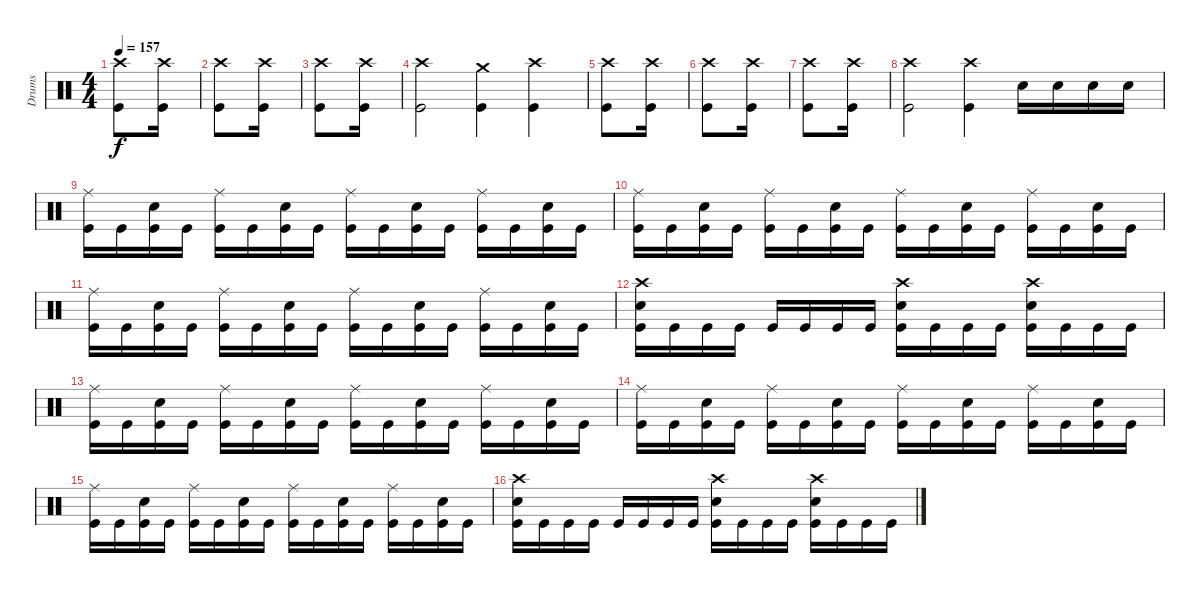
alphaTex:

\track ("Drums" "Drums") {instrument percussion}
\staff {score}
\articulation defaults
\ts (4 4)
\tempo 157
\clef neutral
\ks c
("Crash high (hit)" "Kick (hit)").8{dy f} ("Crash high (hit)" "Kick (hit)").16 |
("Crash high (hit)" "Kick (hit)").8 ("Crash high (hit)" "Kick (hit)").16 |
("Crash high (hit)" "Kick (hit)").8 ("Crash high (hit)" "Kick (hit)").16 |
("Crash high (hit)" "Kick (hit)").2 ("Crash medium (hit)" "Kick (hit)").4 ("Crash high (hit)" "Kick (hit)").4 |
("Crash high (hit)" "Kick (hit)").8 ("Crash high (hit)" "Kick (hit)").16 |
("Crash high (hit)" "Kick (hit)").8 ("Crash high (hit)" "Kick (hit)").16 |
("Crash high (hit)" "Kick (hit)").8 ("Crash high (hit)" "Kick (hit)").16 |
("Crash high (hit)" "Kick (hit)").2 ("Crash high (hit)" "Kick (hit)").4 "Snare (hit) 2".16 "Snare (hit) 2".16 "Snare (hit) 2".16 "Snare (hit) 2".16 |
("Ride (middle)" "Kick (hit)").16 "Kick (hit)".16 ("Snare (hit) 2" "Kick (hit)").16 "Kick (hit)".16 ("Ride (middle)" "Kick (hit)").16 "Kick (hit)".16 ("Snare (hit) 2" "Kick (hit)").16 "Kick (hit)".16 ("Ride (middle)" "Kick (hit)").16 "Kick (hit)".16 ("Snare (hit) 2" "Kick (hit)").16 "Kick (hit)".16 ("Ride (middle)" "Kick (hit)").16 "Kick (hit)".16 ("Snare (hit) 2" "Kick (hit)").16 "Kick (hit)".16 |
("Ride (middle)" "Kick (hit)").16 "Kick (hit)".16 ("Snare (hit) 2" "Kick (hit)").16 "Kick (hit)".16 ("Ride (middle)" "Kick (hit)").16 "Kick (hit)".16 ("Snare (hit) 2" "Kick (hit)").16 "Kick (hit)".16 ("Ride (middle)" "Kick (hit)").16 "Kick (hit)".16 ("Snare (hit) 2" "Kick (hit)").16 "Kick (hit)".16 ("Ride (middle)" "Kick (hit)").16 "Kick (hit)".16 ("Snare (hit) 2" "Kick (hit)").16 "Kick (hit)".16 |
("Ride (middle)" "Kick (hit)").16 "Kick (hit)".16 ("Snare (hit) 2" "Kick (hit)").16 "Kick (hit)".16 ("Ride (middle)" "Kick (hit)").16 "Kick (hit)".16 ("Snare (hit) 2" "Kick (hit)").16 "Kick (hit)".16 ("Ride (middle)" "Kick (hit)").16 "Kick (hit)".16 ("Snare (hit) 2" "Kick (hit)").16 "Kick (hit)".16 ("Ride (middle)" "Kick (hit)").16 "Kick (hit)".16 ("Snare (hit) 2" "Kick (hit)").16 "Kick (hit)".16 |
("Snare (hit) 2" "Crash high (hit)" "Kick (hit)").16 "Kick (hit)".16 "Kick (hit)".16 "Kick (hit)".16 "Kick (hit)".16 "Kick (hit)".16 "Kick (hit)".16 "Kick (hit)".16 ("Snare (hit) 2" "Crash high (hit)" "Kick (hit)").16 "Kick (hit)".16 "Kick (hit)".16 "Kick (hit)".16 ("Snare (hit) 2" "Crash high (hit)" "Kick (hit)").16 "Kick (hit)".16 "Kick (hit)".16 "Kick (hit)".16 |
("Ride (middle)" "Kick (hit)").16 "Kick (hit)".16 ("Snare (hit) 2" "Kick (hit)").16 "Kick (hit)".16 ("Ride (middle)" "Kick (hit)").16 "Kick (hit)".16 ("Snare (hit) 2" "Kick (hit)").16 "Kick (hit)".16 ("Ride (middle)" "Kick (hit)").16 "Kick (hit)".16 ("Snare (hit) 2" "Kick (hit)").16 "Kick (hit)".16 ("Ride (middle)" "Kick (hit)").16 "Kick (hit)".16 ("Snare (hit) 2" "Kick (hit)").16 "Kick (hit)".16 |
("Ride (middle)" "Kick (hit)").16 "Kick (hit)".16 ("Snare (hit) 2" "Kick (hit)").16 "Kick (hit)".16 ("Ride (middle)" "Kick (hit)").16 "Kick (hit)".16 ("Snare (hit) 2" "Kick (hit)").16 "Kick (hit)".16 ("Ride (middle)" "Kick (hit)").16 "Kick (hit)".16 ("Snare (hit) 2" "Kick (hit)").16 "Kick (hit)".16 ("Ride (middle)" "Kick (hit)").16 "Kick (hit)".16 ("Snare (hit) 2" "Kick (hit)").16 "Kick (hit)".16 |
("Ride (middle)" "Kick (hit)").16 "Kick (hit)".16 ("Snare (hit) 2" "Kick (hit)").16 "Kick (hit)".16 ("Ride (middle)" "Kick (hit)").16 "Kick (hit)".16 ("Snare (hit) 2" "Kick (hit)").16 "Kick (hit)".16 ("Ride (middle)" "Kick (hit)").16 "Kick (hit)".16 ("Snare (hit) 2" "Kick (hit)").16 "Kick (hit)".16 ("Ride (middle)" "Kick (hit)").16 "Kick (hit)".16 ("Snare (hit) 2" "Kick (hit)").16 "Kick (hit)".16 |
("Snare (hit) 2" "Crash high (hit)" "Kick (hit)").16 "Kick (hit)".16 "Kick (hit)".16 "Kick (hit)".16 "Kick (hit)".16 "Kick (hit)".16 "Kick (hit)".16 "Kick (hit)".16 ("Snare (hit) 2" "Crash high (hit)" "Kick (hit)").16 "Kick (hit)".16 "Kick (hit)".16 "Kick (hit)".16 ("Snare (hit) 2" "Crash high (hit)" "Kick (hit)").16 "Kick (hit)".16 "Kick (hit)".16 "Kick (hit)".16
